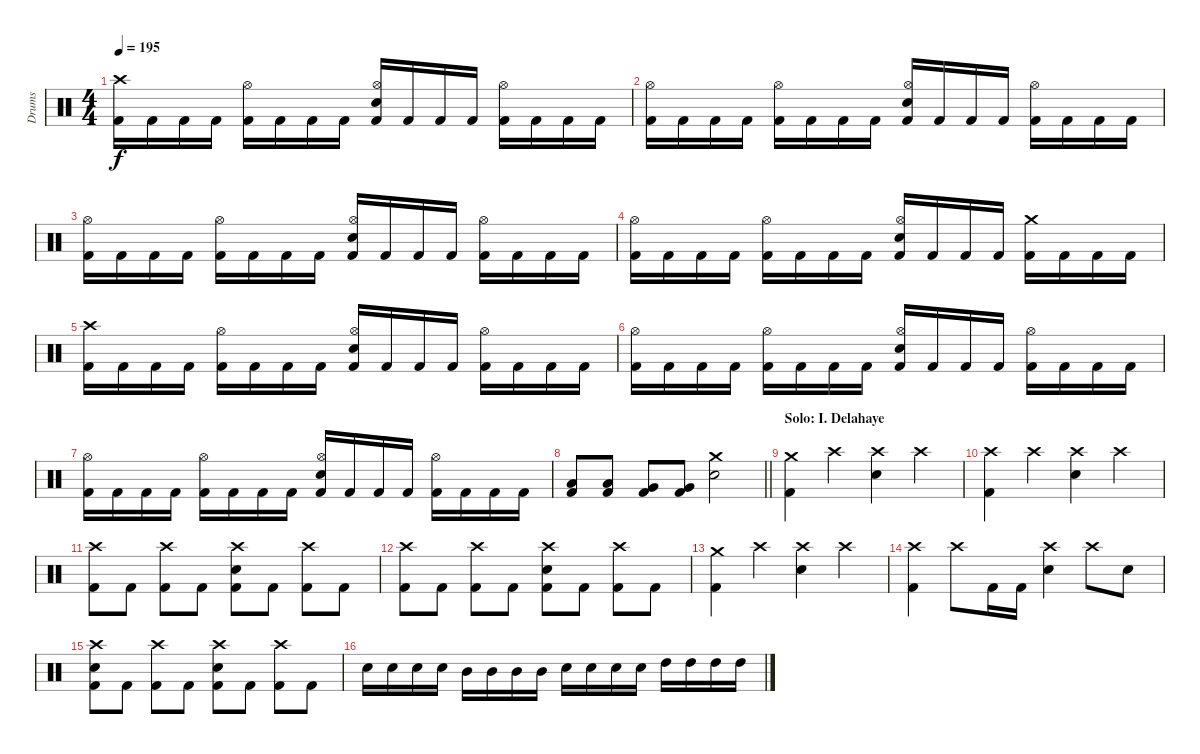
\track ("Drums" "Drums") {instrument percussion}
\staff {score}
\articulation defaults
\ts (4 4)
\tempo 195
\clef neutral
\ks c
("Crash high (hit)" "Kick (hit) 2").16{dy f} "Kick (hit) 2".16 "Kick (hit) 2".16 "Kick (hit) 2".16 ("Hi-Hat (open)" "Kick (hit) 2").16 "Kick (hit) 2".16 "Kick (hit) 2".16 "Kick (hit) 2".16 ("Hi-Hat (open)" "Snare (hit) 2" "Kick (hit) 2").16 "Kick (hit) 2".16 "Kick (hit) 2".16 "Kick (hit) 2".16 ("Hi-Hat (open)" "Kick (hit) 2").16 "Kick (hit) 2".16 "Kick (hit) 2".16 "Kick (hit) 2".16 |
("Hi-Hat (open)" "Kick (hit) 2").16 "Kick (hit) 2".16 "Kick (hit) 2".16 "Kick (hit) 2".16 ("Hi-Hat (open)" "Kick (hit) 2").16 "Kick (hit) 2".16 "Kick (hit) 2".16 "Kick (hit) 2".16 ("Hi-Hat (open)" "Snare (hit) 2" "Kick (hit) 2").16 "Kick (hit) 2".16 "Kick (hit) 2".16 "Kick (hit) 2".16 ("Hi-Hat (open)" "Kick (hit) 2").16 "Kick (hit) 2".16 "Kick (hit) 2".16 "Kick (hit) 2".16 |
("Hi-Hat (open)" "Kick (hit) 2").16 "Kick (hit) 2".16 "Kick (hit) 2".16 "Kick (hit) 2".16 ("Hi-Hat (open)" "Kick (hit) 2").16 "Kick (hit) 2".16 "Kick (hit) 2".16 "Kick (hit) 2".16 ("Hi-Hat (open)" "Snare (hit) 2" "Kick (hit) 2").16 "Kick (hit) 2".16 "Kick (hit) 2".16 "Kick (hit) 2".16 ("Hi-Hat (open)" "Kick (hit) 2").16 "Kick (hit) 2".16 "Kick (hit) 2".16 "Kick (hit) 2".16 |
("Hi-Hat (open)" "Kick (hit) 2").16 "Kick (hit) 2".16 "Kick (hit) 2".16 "Kick (hit) 2".16 ("Hi-Hat (open)" "Kick (hit) 2").16 "Kick (hit) 2".16 "Kick (hit) 2".16 "Kick (hit) 2".16 ("Hi-Hat (open)" "Snare (hit) 2" "Kick (hit) 2").16 "Kick (hit) 2".16 "Kick (hit) 2".16 "Kick (hit) 2".16 ("Crash medium (hit)" "Kick (hit) 2").16 "Kick (hit) 2".16 "Kick (hit) 2".16 "Kick (hit) 2".16 |
("Crash high (hit)" "Kick (hit) 2").16 "Kick (hit) 2".16 "Kick (hit) 2".16 "Kick (hit) 2".16 ("Hi-Hat (open)" "Kick (hit) 2").16 "Kick (hit) 2".16 "Kick (hit) 2".16 "Kick (hit) 2".16 ("Hi-Hat (open)" "Snare (hit) 2" "Kick (hit) 2").16 "Kick (hit) 2".16 "Kick (hit) 2".16 "Kick (hit) 2".16 ("Hi-Hat (open)" "Kick (hit) 2").16 "Kick (hit) 2".16 "Kick (hit) 2".16 "Kick (hit) 2".16 |
("Hi-Hat (open)" "Kick (hit) 2").16 "Kick (hit) 2".16 "Kick (hit) 2".16 "Kick (hit) 2".16 ("Hi-Hat (open)" "Kick (hit) 2").16 "Kick (hit) 2".16 "Kick (hit) 2".16 "Kick (hit) 2".16 ("Hi-Hat (open)" "Snare (hit) 2" "Kick (hit) 2").16 "Kick (hit) 2".16 "Kick (hit) 2".16 "Kick (hit) 2".16 ("Hi-Hat (open)" "Kick (hit) 2").16 "Kick (hit) 2".16 "Kick (hit) 2".16 "Kick (hit) 2".16 |
("Hi-Hat (open)" "Kick (hit) 2").16 "Kick (hit) 2".16 "Kick (hit) 2".16 "Kick (hit) 2".16 ("Hi-Hat (open)" "Kick (hit) 2").16 "Kick (hit) 2".16 "Kick (hit) 2".16 "Kick (hit) 2".16 ("Hi-Hat (open)" "Snare (hit) 2" "Kick (hit) 2").16 "Kick (hit) 2".16 "Kick (hit) 2".16 "Kick (hit) 2".16 ("Hi-Hat (open)" "Kick (hit) 2").16 "Kick (hit) 2".16 "Kick (hit) 2".16 "Kick (hit) 2".16 |
\barLineRight lightlight
("Low Tom (hit)" "Kick (hit) 2").8 ("Low Tom (hit)" "Kick (hit) 2").8 ("Very Low Tom (hit)" "Kick (hit) 2").8 ("Very Low Tom (hit)" "Kick (hit) 2").8 ("Crash medium (hit)" "Snare (hit) 2").2 |
\section ("" "Solo: I. Delahaye")
("Crash medium (hit)" "Kick (hit) 2").4 "Crash high (hit)".4 ("Crash high (hit)" "Snare (hit) 2").4 "Crash high (hit)".4 |
("Crash high (hit)" "Kick (hit) 2").4 "Crash high (hit)".4 ("Crash high (hit)" "Snare (hit) 2").4 "Crash high (hit)".4 |
("Crash high (hit)" "Kick (hit) 2").8 "Kick (hit) 2".8 ("Crash high (hit)" "Kick (hit) 2").8 "Kick (hit) 2".8 ("Crash high (hit)" "Snare (hit) 2" "Kick (hit) 2").8 "Kick (hit) 2".8 ("Crash high (hit)" "Kick (hit) 2").8 "Kick (hit) 2".8 |
("Crash high (hit)" "Kick (hit) 2").8 "Kick (hit) 2".8 ("Crash high (hit)" "Kick (hit) 2").8 "Kick (hit) 2".8 ("Crash high (hit)" "Snare (hit) 2" "Kick (hit) 2").8 "Kick (hit) 2".8 ("Crash high (hit)" "Kick (hit) 2").8 "Kick (hit) 2".8 |
("Crash medium (hit)" "Kick (hit) 2").4 "Crash high (hit)".4 ("Crash high (hit)" "Snare (hit) 2").4 "Crash high (hit)".4 |
("Crash high (hit)" "Kick (hit) 2").4 "Crash high (hit)".8 "Kick (hit) 2".16 "Kick (hit) 2".16 ("Crash high (hit)" "Snare (hit) 2").4 "Crash high (hit)".8 "Snare (hit) 2".8 |
("Crash high (hit)" "Snare (hit) 2" "Kick (hit) 2").8 "Kick (hit) 2".8 ("Crash high (hit)" "Kick (hit) 2").8 "Kick (hit) 2".8 ("Crash high (hit)" "Snare (hit) 2" "Kick (hit) 2").8 "Kick (hit) 2".8 ("Crash high (hit)" "Kick (hit) 2").8 "Kick (hit) 2".8 |
"Snare (hit) 2".16 "Snare (hit) 2".16 "Snare (hit) 2".16 "Snare (hit) 2".16 "Mid Tom (hit)".16 "Mid Tom (hit)".16 "Mid Tom (hit)".16 "Mid Tom (hit)".16 "Snare (hit) 2".16 "Snare (hit) 2".16 "Snare (hit) 2".16 "Snare (hit) 2".16 "High Tom (hit)".16 "High Tom (hit)".16 "High Tom (hit)".16 "High Tom (hit)".16
